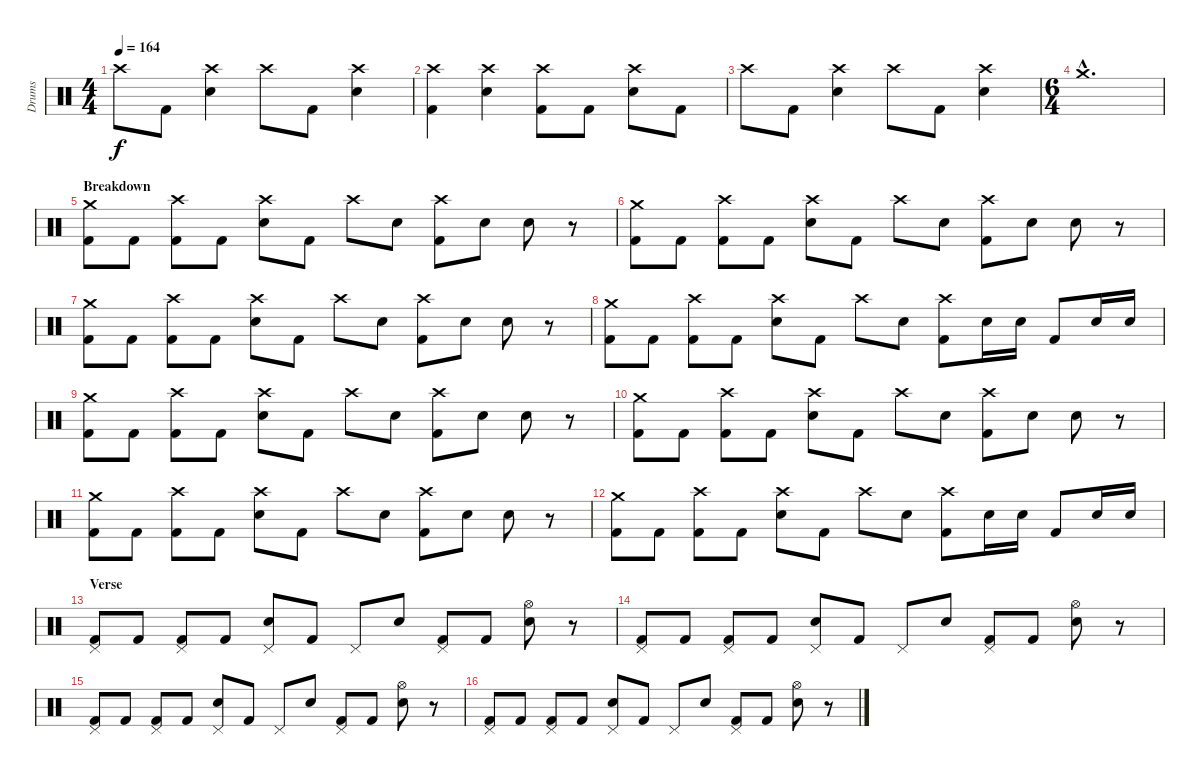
\track ("Drums" "Drums") {instrument percussion}
\staff {score}
\articulation defaults
\ts (4 4)
\tempo 164
\clef neutral
\ks c "Crash high (hit)".8{dy f} "Kick (hit) 2".8
("Crash high (hit)" "Electric Snare (hit)").4 "Crash high (hit)".8 "Kick (hit) 2".8 ("Crash high (hit)" "Electric Snare (hit)").4 |
("Crash high (hit)" "Kick (hit) 2").4 ("Crash high (hit)" "Electric Snare (hit)").4 ("Crash high (hit)" "Kick (hit) 2").8 "Kick (hit) 2".8 ("Crash high (hit)" "Electric Snare (hit)").8 "Kick (hit) 2".8 |
"Crash high (hit)".8 "Kick (hit) 2".8 ("Crash high (hit)" "Electric Snare (hit)").4 "Crash high (hit)".8 "Kick (hit) 2".8 ("Crash high (hit)" "Electric Snare (hit)").4 |
\ts (6 4)
"Crash medium (hit)"{hac}.1{d} |
\section ("" "Breakdown")
("Crash medium (hit)" "Kick (hit) 2").8 "Kick (hit) 2".8 ("Crash high (hit)" "Kick (hit) 2").8 "Kick (hit) 2".8 ("Crash high (hit)" "Electric Snare (hit)").8 "Kick (hit) 2".8 "Crash high (hit)".8 "Electric Snare (hit)".8 ("Crash high (hit)" "Kick (hit) 2").8 "Electric Snare (hit)".8 "Electric Snare (hit)".8 r.8 |
("Crash medium (hit)" "Kick (hit) 2").8 "Kick (hit) 2".8 ("Crash high (hit)" "Kick (hit) 2").8 "Kick (hit) 2".8 ("Crash high (hit)" "Electric Snare (hit)").8 "Kick (hit) 2".8 "Crash high (hit)".8 "Electric Snare (hit)".8 ("Crash high (hit)" "Kick (hit) 2").8 "Electric Snare (hit)".8 "Electric Snare (hit)".8 r.8 |
("Crash medium (hit)" "Kick (hit) 2").8 "Kick (hit) 2".8 ("Crash high (hit)" "Kick (hit) 2").8 "Kick (hit) 2".8 ("Crash high (hit)" "Electric Snare (hit)").8 "Kick (hit) 2".8 "Crash high (hit)".8 "Electric Snare (hit)".8 ("Crash high (hit)" "Kick (hit) 2").8 "Electric Snare (hit)".8 "Electric Snare (hit)".8 r.8 |
("Crash medium (hit)" "Kick (hit) 2").8 "Kick (hit) 2".8 ("Crash high (hit)" "Kick (hit) 2").8 "Kick (hit) 2".8 ("Crash high (hit)" "Electric Snare (hit)").8 "Kick (hit) 2".8 "Crash high (hit)".8 "Electric Snare (hit)".8 ("Crash high (hit)" "Kick (hit) 2").8 "Electric Snare (hit)".16 "Electric Snare (hit)".16 "Kick (hit) 2".8 "Electric Snare (hit)".16 "Electric Snare (hit)".16 |
("Crash medium (hit)" "Kick (hit) 2").8 "Kick (hit) 2".8 ("Crash high (hit)" "Kick (hit) 2").8 "Kick (hit) 2".8 ("Crash high (hit)" "Electric Snare (hit)").8 "Kick (hit) 2".8 "Crash high (hit)".8 "Electric Snare (hit)".8 ("Crash high (hit)" "Kick (hit) 2").8 "Electric Snare (hit)".8 "Electric Snare (hit)".8 r.8 |
("Crash medium (hit)" "Kick (hit) 2").8 "Kick (hit) 2".8 ("Crash high (hit)" "Kick (hit) 2").8 "Kick (hit) 2".8 ("Crash high (hit)" "Electric Snare (hit)").8 "Kick (hit) 2".8 "Crash high (hit)".8 "Electric Snare (hit)".8 ("Crash high (hit)" "Kick (hit) 2").8 "Electric Snare (hit)".8 "Electric Snare (hit)".8 r.8 |
("Crash medium (hit)" "Kick (hit) 2").8 "Kick (hit) 2".8 ("Crash high (hit)" "Kick (hit) 2").8 "Kick (hit) 2".8 ("Crash high (hit)" "Electric Snare (hit)").8 "Kick (hit) 2".8 "Crash high (hit)".8 "Electric Snare (hit)".8 ("Crash high (hit)" "Kick (hit) 2").8 "Electric Snare (hit)".8 "Electric Snare (hit)".8 r.8 |
("Crash medium (hit)" "Kick (hit) 2").8 "Kick (hit) 2".8 ("Crash high (hit)" "Kick (hit) 2").8 "Kick (hit) 2".8 ("Crash high (hit)" "Electric Snare (hit)").8 "Kick (hit) 2".8 "Crash high (hit)".8 "Electric Snare (hit)".8 ("Crash high (hit)" "Kick (hit) 2").8 "Electric Snare (hit)".16 "Electric Snare (hit)".16 "Kick (hit) 2".8 "Electric Snare (hit)".16 "Electric Snare (hit)".16 |
\section ("" "Verse")
("Pedal Hi-Hat (hit)" "Kick (hit) 2").8 "Kick (hit) 2".8 ("Pedal Hi-Hat (hit)" "Kick (hit) 2").8 "Kick (hit) 2".8 ("Pedal Hi-Hat (hit)" "Electric Snare (hit)").8 "Kick (hit) 2".8 "Pedal Hi-Hat (hit)".8 "Electric Snare (hit)".8 ("Pedal Hi-Hat (hit)" "Kick (hit) 2").8 "Kick (hit) 2".8 ("Hi-Hat (open)" "Electric Snare (hit)").8 r.8 |
("Pedal Hi-Hat (hit)" "Kick (hit) 2").8 "Kick (hit) 2".8 ("Pedal Hi-Hat (hit)" "Kick (hit) 2").8 "Kick (hit) 2".8 ("Pedal Hi-Hat (hit)" "Electric Snare (hit)").8 "Kick (hit) 2".8 "Pedal Hi-Hat (hit)".8 "Electric Snare (hit)".8 ("Pedal Hi-Hat (hit)" "Kick (hit) 2").8 "Kick (hit) 2".8 ("Hi-Hat (open)" "Electric Snare (hit)").8 r.8 |
("Pedal Hi-Hat (hit)" "Kick (hit) 2").8 "Kick (hit) 2".8 ("Pedal Hi-Hat (hit)" "Kick (hit) 2").8 "Kick (hit) 2".8 ("Pedal Hi-Hat (hit)" "Electric Snare (hit)").8 "Kick (hit) 2".8 "Pedal Hi-Hat (hit)".8 "Electric Snare (hit)".8 ("Pedal Hi-Hat (hit)" "Kick (hit) 2").8 "Kick (hit) 2".8 ("Hi-Hat (open)" "Electric Snare (hit)").8 r.8 |
("Pedal Hi-Hat (hit)" "Kick (hit) 2").8 "Kick (hit) 2".8 ("Pedal Hi-Hat (hit)" "Kick (hit) 2").8 "Kick (hit) 2".8 ("Pedal Hi-Hat (hit)" "Electric Snare (hit)").8 "Kick (hit) 2".8 "Pedal Hi-Hat (hit)".8 "Electric Snare (hit)".8 ("Pedal Hi-Hat (hit)" "Kick (hit) 2").8 "Kick (hit) 2".8 ("Hi-Hat (open)" "Electric Snare (hit)").8 r.8
